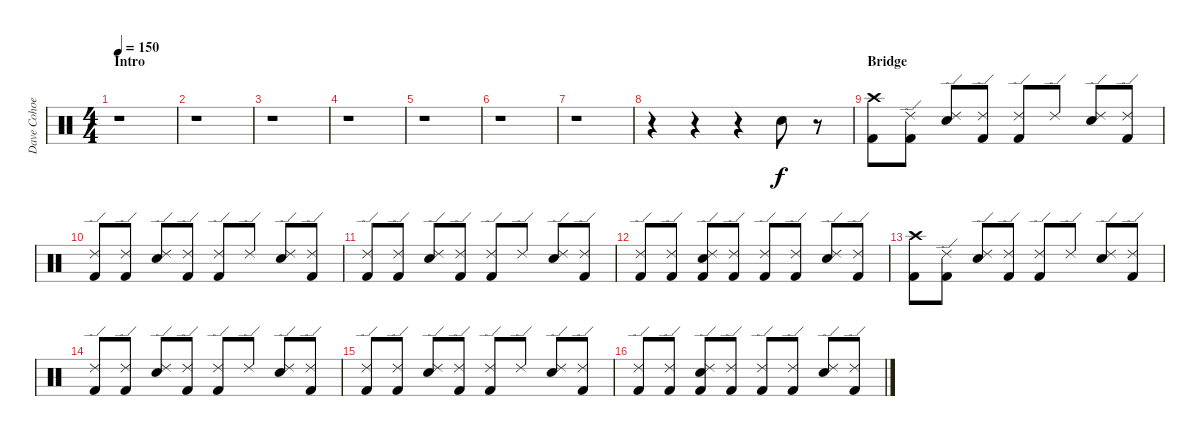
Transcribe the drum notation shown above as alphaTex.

\track ("Dave Cohoe" "Dave Cohoe") {instrument percussion}
\staff {score}
\articulation defaults
\ts (4 4)
\section ("" "Intro")
\tempo 150
\clef neutral
\ks c
r.1{dy f} |
r.1 |
r.1 |
r.1 |
r.1 |
r.1 |
r.1 |
r.4 r.4 r.4 "Snare (hit) 2".8 r.8 |
\section ("" "Bridge")
("Crash high (hit)" "Kick (hit) 2").8 ("Ride (edge) 2" "Kick (hit) 2").8 ("Ride (edge) 2" "Snare (hit) 2").8 ("Ride (edge) 2" "Kick (hit) 2").8 ("Ride (edge) 2" "Kick (hit) 2").8 "Ride (edge) 2".8 ("Ride (edge) 2" "Snare (hit) 2").8 ("Ride (edge) 2" "Kick (hit) 2").8 |
("Ride (edge) 2" "Kick (hit) 2").8 ("Ride (edge) 2" "Kick (hit) 2").8 ("Ride (edge) 2" "Snare (hit) 2").8 ("Ride (edge) 2" "Kick (hit) 2").8 ("Ride (edge) 2" "Kick (hit) 2").8 "Ride (edge) 2".8 ("Ride (edge) 2" "Snare (hit) 2").8 ("Ride (edge) 2" "Kick (hit) 2").8 |
("Ride (edge) 2" "Kick (hit) 2").8 ("Ride (edge) 2" "Kick (hit) 2").8 ("Ride (edge) 2" "Snare (hit) 2").8 ("Ride (edge) 2" "Kick (hit) 2").8 ("Ride (edge) 2" "Kick (hit) 2").8 "Ride (edge) 2".8 ("Ride (edge) 2" "Snare (hit) 2").8 ("Ride (edge) 2" "Kick (hit) 2").8 |
("Ride (edge) 2" "Kick (hit) 2").8 ("Ride (edge) 2" "Kick (hit) 2").8 ("Ride (edge) 2" "Snare (hit) 2" "Kick (hit) 2").8 ("Ride (edge) 2" "Kick (hit) 2").8 ("Ride (edge) 2" "Kick (hit) 2").8 ("Ride (edge) 2" "Kick (hit) 2").8 ("Ride (edge) 2" "Snare (hit) 2").8 ("Ride (edge) 2" "Kick (hit) 2").8 |
("Crash high (hit)" "Kick (hit) 2").8 ("Ride (edge) 2" "Kick (hit) 2").8 ("Ride (edge) 2" "Snare (hit) 2").8 ("Ride (edge) 2" "Kick (hit) 2").8 ("Ride (edge) 2" "Kick (hit) 2").8 "Ride (edge) 2".8 ("Ride (edge) 2" "Snare (hit) 2").8 ("Ride (edge) 2" "Kick (hit) 2").8 |
("Ride (edge) 2" "Kick (hit) 2").8 ("Ride (edge) 2" "Kick (hit) 2").8 ("Ride (edge) 2" "Snare (hit) 2").8 ("Ride (edge) 2" "Kick (hit) 2").8 ("Ride (edge) 2" "Kick (hit) 2").8 "Ride (edge) 2".8 ("Ride (edge) 2" "Snare (hit) 2").8 ("Ride (edge) 2" "Kick (hit) 2").8 |
("Ride (edge) 2" "Kick (hit) 2").8 ("Ride (edge) 2" "Kick (hit) 2").8 ("Ride (edge) 2" "Snare (hit) 2").8 ("Ride (edge) 2" "Kick (hit) 2").8 ("Ride (edge) 2" "Kick (hit) 2").8 "Ride (edge) 2".8 ("Ride (edge) 2" "Snare (hit) 2").8 ("Ride (edge) 2" "Kick (hit) 2").8 |
("Ride (edge) 2" "Kick (hit) 2").8 ("Ride (edge) 2" "Kick (hit) 2").8 ("Ride (edge) 2" "Snare (hit) 2" "Kick (hit) 2").8 ("Ride (edge) 2" "Kick (hit) 2").8 ("Ride (edge) 2" "Kick (hit) 2").8 ("Ride (edge) 2" "Kick (hit) 2").8 ("Ride (edge) 2" "Snare (hit) 2").8 ("Ride (edge) 2" "Kick (hit) 2").8
